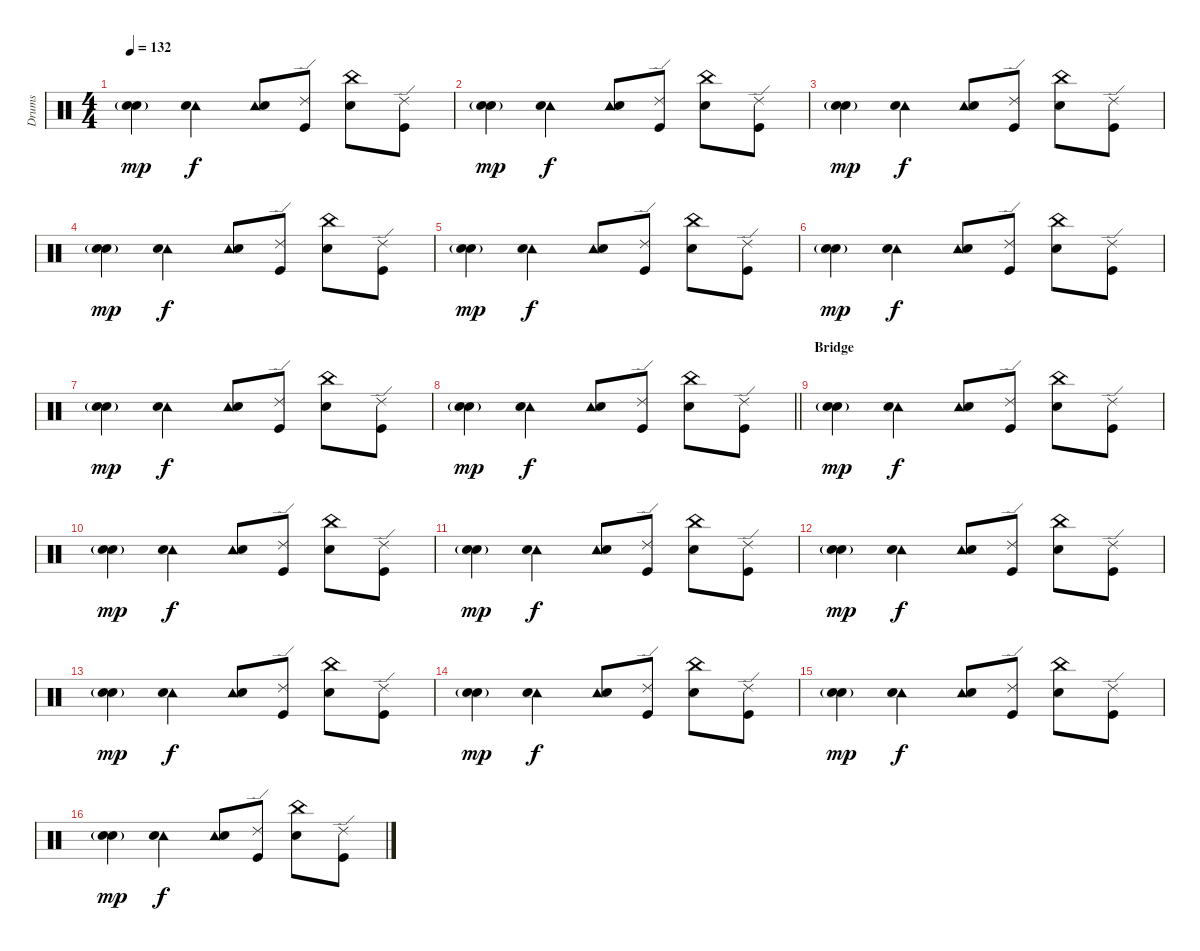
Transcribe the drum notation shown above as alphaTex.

\track ("Drums" "Drums") {instrument percussion}
\staff {score}
\articulation defaults
\ts (4 4)
\tempo 132
\clef neutral
\ks c
("Snare (hit) 2" "Electric Snare (hit)"{g}).4{dy mp} ("Tambourine (hit)" "Snare (hit) 2").4{dy f} ("Tambourine (hit)" "Snare (hit) 2").8 ("Ride (edge) 2" "Kick (hit)").8 ("China (hit)" "Snare (hit) 2").8 ("Ride (edge) 2" "Kick (hit)").8 |
("Snare (hit) 2" "Electric Snare (hit)"{g}).4{dy mp} ("Tambourine (hit)" "Snare (hit) 2").4{dy f} ("Tambourine (hit)" "Snare (hit) 2").8 ("Ride (edge) 2" "Kick (hit)").8 ("China (hit)" "Snare (hit) 2").8 ("Ride (edge) 2" "Kick (hit)").8 |
("Snare (hit) 2" "Electric Snare (hit)"{g}).4{dy mp} ("Tambourine (hit)" "Snare (hit) 2").4{dy f} ("Tambourine (hit)" "Snare (hit) 2").8 ("Ride (edge) 2" "Kick (hit)").8 ("China (hit)" "Snare (hit) 2").8 ("Ride (edge) 2" "Kick (hit)").8 |
("Snare (hit) 2" "Electric Snare (hit)"{g}).4{dy mp} ("Tambourine (hit)" "Snare (hit) 2").4{dy f} ("Tambourine (hit)" "Snare (hit) 2").8 ("Ride (edge) 2" "Kick (hit)").8 ("China (hit)" "Snare (hit) 2").8 ("Ride (edge) 2" "Kick (hit)").8 |
("Snare (hit) 2" "Electric Snare (hit)"{g}).4{dy mp} ("Tambourine (hit)" "Snare (hit) 2").4{dy f} ("Tambourine (hit)" "Snare (hit) 2").8 ("Ride (edge) 2" "Kick (hit)").8 ("China (hit)" "Snare (hit) 2").8 ("Ride (edge) 2" "Kick (hit)").8 |
("Snare (hit) 2" "Electric Snare (hit)"{g}).4{dy mp} ("Tambourine (hit)" "Snare (hit) 2").4{dy f} ("Tambourine (hit)" "Snare (hit) 2").8 ("Ride (edge) 2" "Kick (hit)").8 ("China (hit)" "Snare (hit) 2").8 ("Ride (edge) 2" "Kick (hit)").8 |
("Snare (hit) 2" "Electric Snare (hit)"{g}).4{dy mp} ("Tambourine (hit)" "Snare (hit) 2").4{dy f} ("Tambourine (hit)" "Snare (hit) 2").8 ("Ride (edge) 2" "Kick (hit)").8 ("China (hit)" "Snare (hit) 2").8 ("Ride (edge) 2" "Kick (hit)").8 |
\barLineRight lightlight
("Snare (hit) 2" "Electric Snare (hit)"{g}).4{dy mp} ("Tambourine (hit)" "Snare (hit) 2").4{dy f} ("Tambourine (hit)" "Snare (hit) 2").8 ("Ride (edge) 2" "Kick (hit)").8 ("China (hit)" "Snare (hit) 2").8 ("Ride (edge) 2" "Kick (hit)").8 |
\section ("" "Bridge")
("Snare (hit) 2" "Electric Snare (hit)"{g}).4{dy mp} ("Tambourine (hit)" "Snare (hit) 2").4{dy f} ("Tambourine (hit)" "Snare (hit) 2").8 ("Ride (edge) 2" "Kick (hit)").8 ("China (hit)" "Snare (hit) 2").8 ("Ride (edge) 2" "Kick (hit)").8 |
("Snare (hit) 2" "Electric Snare (hit)"{g}).4{dy mp} ("Tambourine (hit)" "Snare (hit) 2").4{dy f} ("Tambourine (hit)" "Snare (hit) 2").8 ("Ride (edge) 2" "Kick (hit)").8 ("China (hit)" "Snare (hit) 2").8 ("Ride (edge) 2" "Kick (hit)").8 |
("Snare (hit) 2" "Electric Snare (hit)"{g}).4{dy mp} ("Tambourine (hit)" "Snare (hit) 2").4{dy f} ("Tambourine (hit)" "Snare (hit) 2").8 ("Ride (edge) 2" "Kick (hit)").8 ("China (hit)" "Snare (hit) 2").8 ("Ride (edge) 2" "Kick (hit)").8 |
("Snare (hit) 2" "Electric Snare (hit)"{g}).4{dy mp} ("Tambourine (hit)" "Snare (hit) 2").4{dy f} ("Tambourine (hit)" "Snare (hit) 2").8 ("Ride (edge) 2" "Kick (hit)").8 ("China (hit)" "Snare (hit) 2").8 ("Ride (edge) 2" "Kick (hit)").8 |
("Snare (hit) 2" "Electric Snare (hit)"{g}).4{dy mp} ("Tambourine (hit)" "Snare (hit) 2").4{dy f} ("Tambourine (hit)" "Snare (hit) 2").8 ("Ride (edge) 2" "Kick (hit)").8 ("China (hit)" "Snare (hit) 2").8 ("Ride (edge) 2" "Kick (hit)").8 |
("Snare (hit) 2" "Electric Snare (hit)"{g}).4{dy mp} ("Tambourine (hit)" "Snare (hit) 2").4{dy f} ("Tambourine (hit)" "Snare (hit) 2").8 ("Ride (edge) 2" "Kick (hit)").8 ("China (hit)" "Snare (hit) 2").8 ("Ride (edge) 2" "Kick (hit)").8 |
("Snare (hit) 2" "Electric Snare (hit)"{g}).4{dy mp} ("Tambourine (hit)" "Snare (hit) 2").4{dy f} ("Tambourine (hit)" "Snare (hit) 2").8 ("Ride (edge) 2" "Kick (hit)").8 ("China (hit)" "Snare (hit) 2").8 ("Ride (edge) 2" "Kick (hit)").8 |
("Snare (hit) 2" "Electric Snare (hit)"{g}).4{dy mp} ("Tambourine (hit)" "Snare (hit) 2").4{dy f} ("Tambourine (hit)" "Snare (hit) 2").8 ("Ride (edge) 2" "Kick (hit)").8 ("China (hit)" "Snare (hit) 2").8 ("Ride (edge) 2" "Kick (hit)").8
